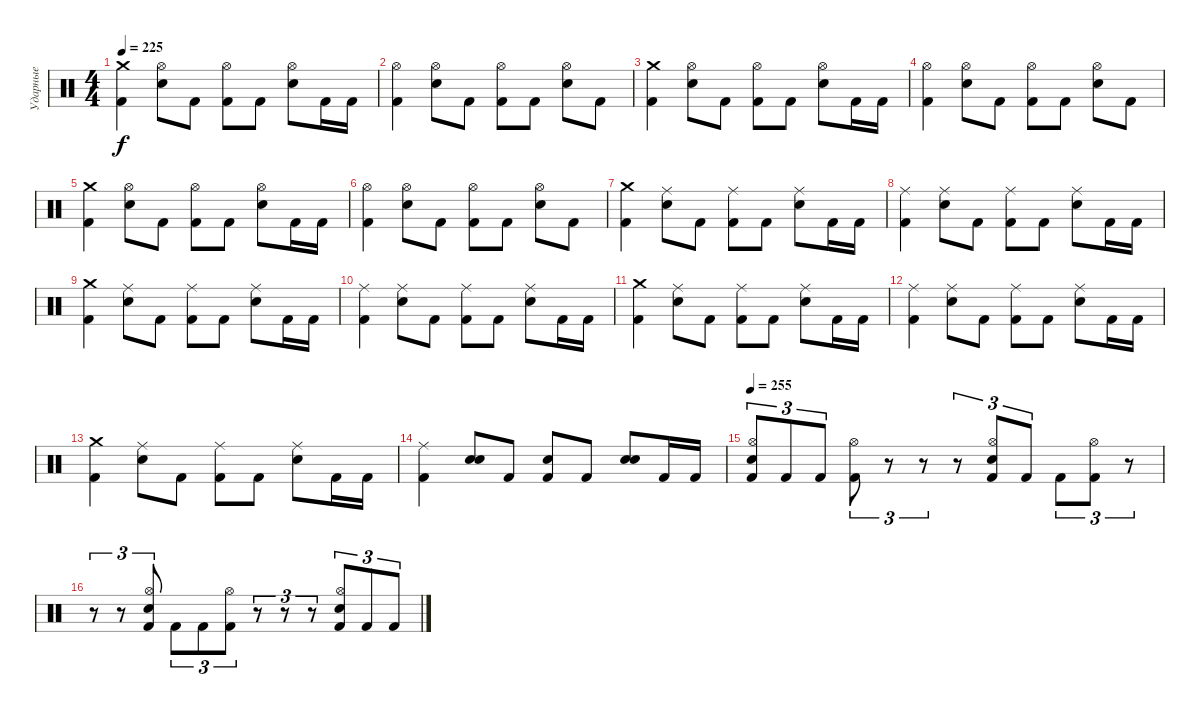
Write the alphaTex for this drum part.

\track ("Ударные" "Ударные") {instrument percussion}
\staff {score}
\articulation defaults
\ts (4 4)
\tempo 225
\clef neutral
\ks c
("Crash medium (hit)" "Kick (hit) 2").4{dy f} ("Hi-Hat (open)" "Snare (hit) 2").8 "Kick (hit) 2".8 ("Hi-Hat (open)" "Kick (hit) 2").8 "Kick (hit) 2".8 ("Hi-Hat (open)" "Snare (hit) 2").8 "Kick (hit) 2".16 "Kick (hit) 2".16 |
("Hi-Hat (open)" "Kick (hit) 2").4 ("Hi-Hat (open)" "Snare (hit) 2").8 "Kick (hit) 2".8 ("Hi-Hat (open)" "Kick (hit) 2").8 "Kick (hit) 2".8 ("Hi-Hat (open)" "Snare (hit) 2").8 "Kick (hit) 2".8 |
("Crash medium (hit)" "Kick (hit) 2").4 ("Hi-Hat (open)" "Snare (hit) 2").8 "Kick (hit) 2".8 ("Hi-Hat (open)" "Kick (hit) 2").8 "Kick (hit) 2".8 ("Hi-Hat (open)" "Snare (hit) 2").8 "Kick (hit) 2".16 "Kick (hit) 2".16 |
("Hi-Hat (open)" "Kick (hit) 2").4 ("Hi-Hat (open)" "Snare (hit) 2").8 "Kick (hit) 2".8 ("Hi-Hat (open)" "Kick (hit) 2").8 "Kick (hit) 2".8 ("Hi-Hat (open)" "Snare (hit) 2").8 "Kick (hit) 2".8 |
("Crash medium (hit)" "Kick (hit) 2").4 ("Hi-Hat (open)" "Snare (hit) 2").8 "Kick (hit) 2".8 ("Hi-Hat (open)" "Kick (hit) 2").8 "Kick (hit) 2".8 ("Hi-Hat (open)" "Snare (hit) 2").8 "Kick (hit) 2".16 "Kick (hit) 2".16 |
("Hi-Hat (open)" "Kick (hit) 2").4 ("Hi-Hat (open)" "Snare (hit) 2").8 "Kick (hit) 2".8 ("Hi-Hat (open)" "Kick (hit) 2").8 "Kick (hit) 2".8 ("Hi-Hat (open)" "Snare (hit) 2").8 "Kick (hit) 2".8 |
("Crash medium (hit)" "Kick (hit) 2").4 ("Ride (middle)" "Snare (hit) 2").8 "Kick (hit) 2".8 ("Ride (middle)" "Kick (hit) 2").8 "Kick (hit) 2".8 ("Ride (middle)" "Snare (hit) 2").8 "Kick (hit) 2".16 "Kick (hit) 2".16 |
("Ride (middle)" "Kick (hit) 2").4 ("Ride (middle)" "Snare (hit) 2").8 "Kick (hit) 2".8 ("Ride (middle)" "Kick (hit) 2").8 "Kick (hit) 2".8 ("Ride (middle)" "Snare (hit) 2").8 "Kick (hit) 2".16 "Kick (hit) 2".16 |
("Crash medium (hit)" "Kick (hit) 2").4 ("Ride (middle)" "Snare (hit) 2").8 "Kick (hit) 2".8 ("Ride (middle)" "Kick (hit) 2").8 "Kick (hit) 2".8 ("Ride (middle)" "Snare (hit) 2").8 "Kick (hit) 2".16 "Kick (hit) 2".16 |
("Ride (middle)" "Kick (hit) 2").4 ("Ride (middle)" "Snare (hit) 2").8 "Kick (hit) 2".8 ("Ride (middle)" "Kick (hit) 2").8 "Kick (hit) 2".8 ("Ride (middle)" "Snare (hit) 2").8 "Kick (hit) 2".16 "Kick (hit) 2".16 |
("Crash medium (hit)" "Kick (hit) 2").4 ("Ride (middle)" "Snare (hit) 2").8 "Kick (hit) 2".8 ("Ride (middle)" "Kick (hit) 2").8 "Kick (hit) 2".8 ("Ride (middle)" "Snare (hit) 2").8 "Kick (hit) 2".16 "Kick (hit) 2".16 |
("Ride (middle)" "Kick (hit) 2").4 ("Ride (middle)" "Snare (hit) 2").8 "Kick (hit) 2".8 ("Ride (middle)" "Kick (hit) 2").8 "Kick (hit) 2".8 ("Ride (middle)" "Snare (hit) 2").8 "Kick (hit) 2".16 "Kick (hit) 2".16 |
("Crash medium (hit)" "Kick (hit) 2").4 ("Ride (middle)" "Snare (hit) 2").8 "Kick (hit) 2".8 ("Ride (middle)" "Kick (hit) 2").8 "Kick (hit) 2".8 ("Ride (middle)" "Snare (hit) 2").8 "Kick (hit) 2".16 "Kick (hit) 2".16 |
("Ride (middle)" "Kick (hit) 2").4 ("Snare (hit)" "Snare (hit) 2").8 "Kick (hit) 2".8 ("Snare (hit)" "Kick (hit) 2").8 "Kick (hit) 2".8 ("Snare (hit)" "Snare (hit) 2").8 "Kick (hit) 2".16 "Kick (hit) 2".16 |
\tempo 255
("Hi-Hat (open)" "Snare (hit) 2" "Kick (hit) 2").8{tu (3 2)} "Kick (hit) 2".8{tu (3 2)} "Kick (hit) 2".8{tu (3 2)} ("Hi-Hat (open)" "Kick (hit) 2").8{tu (3 2)} r.8{tu (3 2)} r.8{tu (3 2)} r.8{tu (3 2)} ("Hi-Hat (open)" "Snare (hit) 2" "Kick (hit) 2").8{tu (3 2)} "Kick (hit) 2".8{tu (3 2)} "Kick (hit) 2".8{tu (3 2)} ("Hi-Hat (open)" "Kick (hit) 2").8{tu (3 2)} r.8{tu (3 2)} |
r.8{tu (3 2)} r.8{tu (3 2)} ("Hi-Hat (open)" "Snare (hit) 2" "Kick (hit) 2").8{tu (3 2)} "Kick (hit) 2".8{tu (3 2)} "Kick (hit) 2".8{tu (3 2)} ("Hi-Hat (open)" "Kick (hit) 2").8{tu (3 2)} r.8{tu (3 2)} r.8{tu (3 2)} r.8{tu (3 2)} ("Hi-Hat (open)" "Snare (hit) 2" "Kick (hit) 2").8{tu (3 2)} "Kick (hit) 2".8{tu (3 2)} "Kick (hit) 2".8{tu (3 2)}
